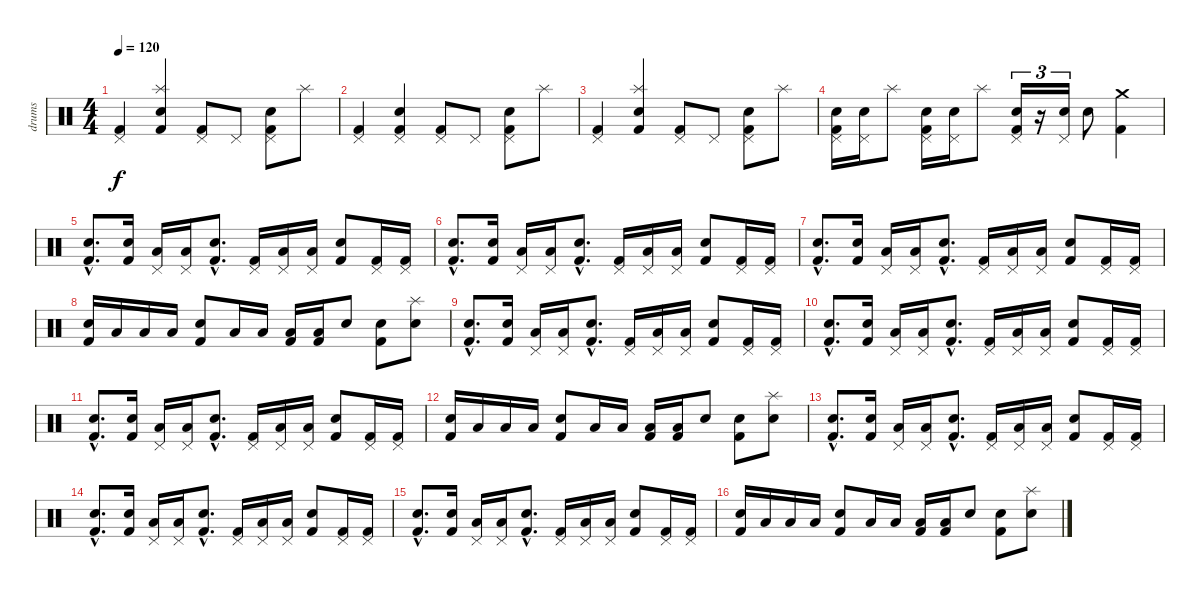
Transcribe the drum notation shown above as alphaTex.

\track ("drums" "drums") {instrument percussion}
\staff {score}
\articulation defaults
\ts (4 4)
\tempo 120
\clef neutral
\ks c
("Pedal Hi-Hat (hit)" "Kick (hit) 2").4{dy f} ("Splash (hit)" "Electric Snare (hit)" "Kick (hit) 2").4 ("Pedal Hi-Hat (hit)" "Kick (hit) 2").8 "Pedal Hi-Hat (hit)".8 ("Pedal Hi-Hat (hit)" "Electric Snare (hit)" "Kick (hit) 2").8 "Splash (hit)".8 |
("Pedal Hi-Hat (hit)" "Kick (hit) 2").4 ("Pedal Hi-Hat (hit)" "Electric Snare (hit)" "Kick (hit) 2").4 ("Pedal Hi-Hat (hit)" "Kick (hit) 2").8 "Pedal Hi-Hat (hit)".8 ("Pedal Hi-Hat (hit)" "Electric Snare (hit)" "Kick (hit) 2").8 "Splash (hit)".8 |
("Pedal Hi-Hat (hit)" "Kick (hit) 2").4 ("Splash (hit)" "Electric Snare (hit)" "Kick (hit) 2").4 ("Pedal Hi-Hat (hit)" "Kick (hit) 2").8 "Pedal Hi-Hat (hit)".8 ("Pedal Hi-Hat (hit)" "Electric Snare (hit)" "Kick (hit) 2").8 "Splash (hit)".8 |
("Pedal Hi-Hat (hit)" "Electric Snare (hit)" "Kick (hit) 2").16 ("Pedal Hi-Hat (hit)" "Electric Snare (hit)").16 "Splash (hit)".8 ("Pedal Hi-Hat (hit)" "Electric Snare (hit)" "Kick (hit) 2").16 ("Pedal Hi-Hat (hit)" "Electric Snare (hit)").16 "Splash (hit)".8 ("Pedal Hi-Hat (hit)" "Electric Snare (hit)" "Kick (hit) 2").16{tu (3 2)} r.16{tu (3 2)} ("Pedal Hi-Hat (hit)" "Electric Snare (hit)").16{tu (3 2)} "Electric Snare (hit)".8 ("Crash medium (hit)" "Kick (hit) 2").4 |
("Electric Snare (hit)"{hac} "Kick (hit) 2"{hac}).8{d} ("Electric Snare (hit)" "Kick (hit) 2").16 ("Pedal Hi-Hat (hit)" "Low Tom (hit)").16 ("Pedal Hi-Hat (hit)" "Low Tom (hit)").16 ("Electric Snare (hit)"{hac} "Kick (hit) 2"{hac}).8{d} ("Pedal Hi-Hat (hit)" "Kick (hit) 2").16 ("Pedal Hi-Hat (hit)" "Low Tom (hit)").16 ("Pedal Hi-Hat (hit)" "Low Tom (hit)").16 ("Electric Snare (hit)" "Kick (hit) 2").8 ("Pedal Hi-Hat (hit)" "Kick (hit) 2").16 ("Pedal Hi-Hat (hit)" "Kick (hit) 2").16 |
("Electric Snare (hit)"{hac} "Kick (hit) 2"{hac}).8{d} ("Electric Snare (hit)" "Kick (hit) 2").16 ("Pedal Hi-Hat (hit)" "Low Tom (hit)").16 ("Pedal Hi-Hat (hit)" "Low Tom (hit)").16 ("Electric Snare (hit)"{hac} "Kick (hit) 2"{hac}).8{d} ("Pedal Hi-Hat (hit)" "Kick (hit) 2").16 ("Pedal Hi-Hat (hit)" "Low Tom (hit)").16 ("Pedal Hi-Hat (hit)" "Low Tom (hit)").16 ("Electric Snare (hit)" "Kick (hit) 2").8 ("Pedal Hi-Hat (hit)" "Kick (hit) 2").16 ("Pedal Hi-Hat (hit)" "Kick (hit) 2").16 |
("Electric Snare (hit)"{hac} "Kick (hit) 2"{hac}).8{d} ("Electric Snare (hit)" "Kick (hit) 2").16 ("Pedal Hi-Hat (hit)" "Low Tom (hit)").16 ("Pedal Hi-Hat (hit)" "Low Tom (hit)").16 ("Electric Snare (hit)"{hac} "Kick (hit) 2"{hac}).8{d} ("Pedal Hi-Hat (hit)" "Kick (hit) 2").16 ("Pedal Hi-Hat (hit)" "Low Tom (hit)").16 ("Pedal Hi-Hat (hit)" "Low Tom (hit)").16 ("Electric Snare (hit)" "Kick (hit) 2").8 ("Pedal Hi-Hat (hit)" "Kick (hit) 2").16 ("Pedal Hi-Hat (hit)" "Kick (hit) 2").16 |
("Electric Snare (hit)" "Kick (hit) 2").16 "Low Tom (hit)".16 "Low Tom (hit)".16 "Low Tom (hit)".16 ("Electric Snare (hit)" "Kick (hit) 2").8 "Low Tom (hit)".16 "Low Tom (hit)".16 ("Low Tom (hit)" "Kick (hit) 2").16 ("Low Tom (hit)" "Kick (hit) 2").16 "Electric Snare (hit)".8 ("Electric Snare (hit)" "Kick (hit) 2").8 ("Splash (hit)" "Electric Snare (hit)").8 |
("Electric Snare (hit)"{hac} "Kick (hit) 2"{hac}).8{d} ("Electric Snare (hit)" "Kick (hit) 2").16 ("Pedal Hi-Hat (hit)" "Low Tom (hit)").16 ("Pedal Hi-Hat (hit)" "Low Tom (hit)").16 ("Electric Snare (hit)"{hac} "Kick (hit) 2"{hac}).8{d} ("Pedal Hi-Hat (hit)" "Kick (hit) 2").16 ("Pedal Hi-Hat (hit)" "Low Tom (hit)").16 ("Pedal Hi-Hat (hit)" "Low Tom (hit)").16 ("Electric Snare (hit)" "Kick (hit) 2").8 ("Pedal Hi-Hat (hit)" "Kick (hit) 2").16 ("Pedal Hi-Hat (hit)" "Kick (hit) 2").16 |
("Electric Snare (hit)"{hac} "Kick (hit) 2"{hac}).8{d} ("Electric Snare (hit)" "Kick (hit) 2").16 ("Pedal Hi-Hat (hit)" "Low Tom (hit)").16 ("Pedal Hi-Hat (hit)" "Low Tom (hit)").16 ("Electric Snare (hit)"{hac} "Kick (hit) 2"{hac}).8{d} ("Pedal Hi-Hat (hit)" "Kick (hit) 2").16 ("Pedal Hi-Hat (hit)" "Low Tom (hit)").16 ("Pedal Hi-Hat (hit)" "Low Tom (hit)").16 ("Electric Snare (hit)" "Kick (hit) 2").8 ("Pedal Hi-Hat (hit)" "Kick (hit) 2").16 ("Pedal Hi-Hat (hit)" "Kick (hit) 2").16 |
("Electric Snare (hit)"{hac} "Kick (hit) 2"{hac}).8{d} ("Electric Snare (hit)" "Kick (hit) 2").16 ("Pedal Hi-Hat (hit)" "Low Tom (hit)").16 ("Pedal Hi-Hat (hit)" "Low Tom (hit)").16 ("Electric Snare (hit)"{hac} "Kick (hit) 2"{hac}).8{d} ("Pedal Hi-Hat (hit)" "Kick (hit) 2").16 ("Pedal Hi-Hat (hit)" "Low Tom (hit)").16 ("Pedal Hi-Hat (hit)" "Low Tom (hit)").16 ("Electric Snare (hit)" "Kick (hit) 2").8 ("Pedal Hi-Hat (hit)" "Kick (hit) 2").16 ("Pedal Hi-Hat (hit)" "Kick (hit) 2").16 |
("Electric Snare (hit)" "Kick (hit) 2").16 "Low Tom (hit)".16 "Low Tom (hit)".16 "Low Tom (hit)".16 ("Electric Snare (hit)" "Kick (hit) 2").8 "Low Tom (hit)".16 "Low Tom (hit)".16 ("Low Tom (hit)" "Kick (hit) 2").16 ("Low Tom (hit)" "Kick (hit) 2").16 "Electric Snare (hit)".8 ("Electric Snare (hit)" "Kick (hit) 2").8 ("Splash (hit)" "Electric Snare (hit)").8 |
("Electric Snare (hit)"{hac} "Kick (hit) 2"{hac}).8{d} ("Electric Snare (hit)" "Kick (hit) 2").16 ("Pedal Hi-Hat (hit)" "Low Tom (hit)").16 ("Pedal Hi-Hat (hit)" "Low Tom (hit)").16 ("Electric Snare (hit)"{hac} "Kick (hit) 2"{hac}).8{d} ("Pedal Hi-Hat (hit)" "Kick (hit) 2").16 ("Pedal Hi-Hat (hit)" "Low Tom (hit)").16 ("Pedal Hi-Hat (hit)" "Low Tom (hit)").16 ("Electric Snare (hit)" "Kick (hit) 2").8 ("Pedal Hi-Hat (hit)" "Kick (hit) 2").16 ("Pedal Hi-Hat (hit)" "Kick (hit) 2").16 |
("Electric Snare (hit)"{hac} "Kick (hit) 2"{hac}).8{d} ("Electric Snare (hit)" "Kick (hit) 2").16 ("Pedal Hi-Hat (hit)" "Low Tom (hit)").16 ("Pedal Hi-Hat (hit)" "Low Tom (hit)").16 ("Electric Snare (hit)"{hac} "Kick (hit) 2"{hac}).8{d} ("Pedal Hi-Hat (hit)" "Kick (hit) 2").16 ("Pedal Hi-Hat (hit)" "Low Tom (hit)").16 ("Pedal Hi-Hat (hit)" "Low Tom (hit)").16 ("Electric Snare (hit)" "Kick (hit) 2").8 ("Pedal Hi-Hat (hit)" "Kick (hit) 2").16 ("Pedal Hi-Hat (hit)" "Kick (hit) 2").16 |
("Electric Snare (hit)"{hac} "Kick (hit) 2"{hac}).8{d} ("Electric Snare (hit)" "Kick (hit) 2").16 ("Pedal Hi-Hat (hit)" "Low Tom (hit)").16 ("Pedal Hi-Hat (hit)" "Low Tom (hit)").16 ("Electric Snare (hit)"{hac} "Kick (hit) 2"{hac}).8{d} ("Pedal Hi-Hat (hit)" "Kick (hit) 2").16 ("Pedal Hi-Hat (hit)" "Low Tom (hit)").16 ("Pedal Hi-Hat (hit)" "Low Tom (hit)").16 ("Electric Snare (hit)" "Kick (hit) 2").8 ("Pedal Hi-Hat (hit)" "Kick (hit) 2").16 ("Pedal Hi-Hat (hit)" "Kick (hit) 2").16 |
("Electric Snare (hit)" "Kick (hit) 2").16 "Low Tom (hit)".16 "Low Tom (hit)".16 "Low Tom (hit)".16 ("Electric Snare (hit)" "Kick (hit) 2").8 "Low Tom (hit)".16 "Low Tom (hit)".16 ("Low Tom (hit)" "Kick (hit) 2").16 ("Low Tom (hit)" "Kick (hit) 2").16 "Electric Snare (hit)".8 ("Electric Snare (hit)" "Kick (hit) 2").8 ("Splash (hit)" "Electric Snare (hit)").8
